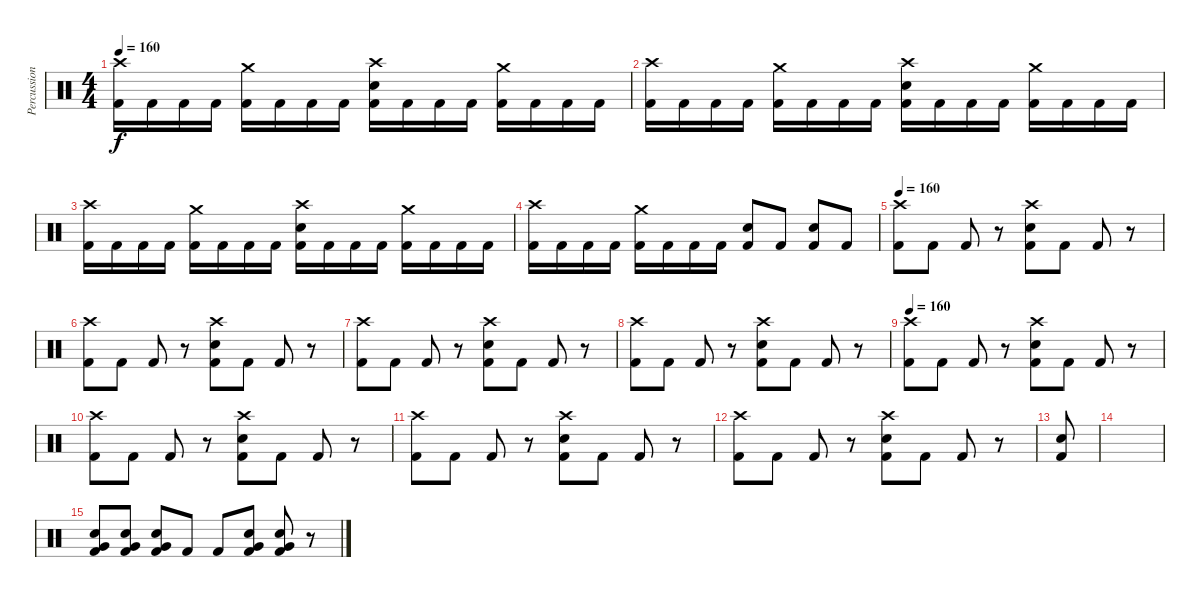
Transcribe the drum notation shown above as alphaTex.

\track ("Percussion" "Percussion") {instrument percussion}
\staff {score}
\articulation defaults
\ts (4 4)
\tempo 160
\clef neutral
\ks c
("Crash high (hit)" "Kick (hit) 2").16{dy f} "Kick (hit) 2".16 "Kick (hit) 2".16 "Kick (hit) 2".16 ("Crash medium (hit)" "Kick (hit) 2").16 "Kick (hit) 2".16 "Kick (hit) 2".16 "Kick (hit) 2".16 ("Crash high (hit)" "Electric Snare (hit)" "Kick (hit) 2").16 "Kick (hit) 2".16 "Kick (hit) 2".16 "Kick (hit) 2".16 ("Crash medium (hit)" "Kick (hit) 2").16 "Kick (hit) 2".16 "Kick (hit) 2".16 "Kick (hit) 2".16 |
("Crash high (hit)" "Kick (hit) 2").16 "Kick (hit) 2".16 "Kick (hit) 2".16 "Kick (hit) 2".16 ("Crash medium (hit)" "Kick (hit) 2").16 "Kick (hit) 2".16 "Kick (hit) 2".16 "Kick (hit) 2".16 ("Crash high (hit)" "Electric Snare (hit)" "Kick (hit) 2").16 "Kick (hit) 2".16 "Kick (hit) 2".16 "Kick (hit) 2".16 ("Crash medium (hit)" "Kick (hit) 2").16 "Kick (hit) 2".16 "Kick (hit) 2".16 "Kick (hit) 2".16 |
("Crash high (hit)" "Kick (hit) 2").16 "Kick (hit) 2".16 "Kick (hit) 2".16 "Kick (hit) 2".16 ("Crash medium (hit)" "Kick (hit) 2").16 "Kick (hit) 2".16 "Kick (hit) 2".16 "Kick (hit) 2".16 ("Crash high (hit)" "Electric Snare (hit)" "Kick (hit) 2").16 "Kick (hit) 2".16 "Kick (hit) 2".16 "Kick (hit) 2".16 ("Crash medium (hit)" "Kick (hit) 2").16 "Kick (hit) 2".16 "Kick (hit) 2".16 "Kick (hit) 2".16 |
("Crash high (hit)" "Kick (hit) 2").16 "Kick (hit) 2".16 "Kick (hit) 2".16 "Kick (hit) 2".16 ("Crash medium (hit)" "Kick (hit) 2").16 "Kick (hit) 2".16 "Kick (hit) 2".16 "Kick (hit) 2".16 ("Electric Snare (hit)" "Kick (hit) 2").8 "Kick (hit) 2".8 ("Electric Snare (hit)" "Kick (hit) 2").8 "Kick (hit) 2".8 |
\tempo 160
("Crash high (hit)" "Kick (hit) 2").8 "Kick (hit) 2".8 "Kick (hit) 2".8 r.8 ("Crash high (hit)" "Electric Snare (hit)" "Kick (hit) 2").8 "Kick (hit) 2".8 "Kick (hit) 2".8 r.8 |
("Crash high (hit)" "Kick (hit) 2").8 "Kick (hit) 2".8 "Kick (hit) 2".8 r.8 ("Crash high (hit)" "Electric Snare (hit)" "Kick (hit) 2").8 "Kick (hit) 2".8 "Kick (hit) 2".8 r.8 |
("Crash high (hit)" "Kick (hit) 2").8 "Kick (hit) 2".8 "Kick (hit) 2".8 r.8 ("Crash high (hit)" "Electric Snare (hit)" "Kick (hit) 2").8 "Kick (hit) 2".8 "Kick (hit) 2".8 r.8 |
("Crash high (hit)" "Kick (hit) 2").8 "Kick (hit) 2".8 "Kick (hit) 2".8 r.8 ("Crash high (hit)" "Electric Snare (hit)" "Kick (hit) 2").8 "Kick (hit) 2".8 "Kick (hit) 2".8 r.8 |
\tempo 160
("Crash high (hit)" "Kick (hit) 2").8 "Kick (hit) 2".8 "Kick (hit) 2".8 r.8 ("Crash high (hit)" "Electric Snare (hit)" "Kick (hit) 2").8 "Kick (hit) 2".8 "Kick (hit) 2".8 r.8 |
("Crash high (hit)" "Kick (hit) 2").8 "Kick (hit) 2".8 "Kick (hit) 2".8 r.8 ("Crash high (hit)" "Electric Snare (hit)" "Kick (hit) 2").8 "Kick (hit) 2".8 "Kick (hit) 2".8 r.8 |
("Crash high (hit)" "Kick (hit) 2").8 "Kick (hit) 2".8 "Kick (hit) 2".8 r.8 ("Crash high (hit)" "Electric Snare (hit)" "Kick (hit) 2").8 "Kick (hit) 2".8 "Kick (hit) 2".8 r.8 |
("Crash high (hit)" "Kick (hit) 2").8 "Kick (hit) 2".8 "Kick (hit) 2".8 r.8 ("Crash high (hit)" "Electric Snare (hit)" "Kick (hit) 2").8 "Kick (hit) 2".8 "Kick (hit) 2".8 r.8 |
("Electric Snare (hit)" "Kick (hit) 2").8 |
|
("Very Low Tom (hit)" "Electric Snare (hit)" "Kick (hit) 2").8 ("Very Low Tom (hit)" "Electric Snare (hit)" "Kick (hit) 2").8 ("Very Low Tom (hit)" "Electric Snare (hit)" "Kick (hit) 2").8 "Kick (hit) 2".8 "Kick (hit) 2".8 ("Very Low Tom (hit)" "Electric Snare (hit)" "Kick (hit) 2").8 ("Very Low Tom (hit)" "Electric Snare (hit)" "Kick (hit) 2").8 r.8
